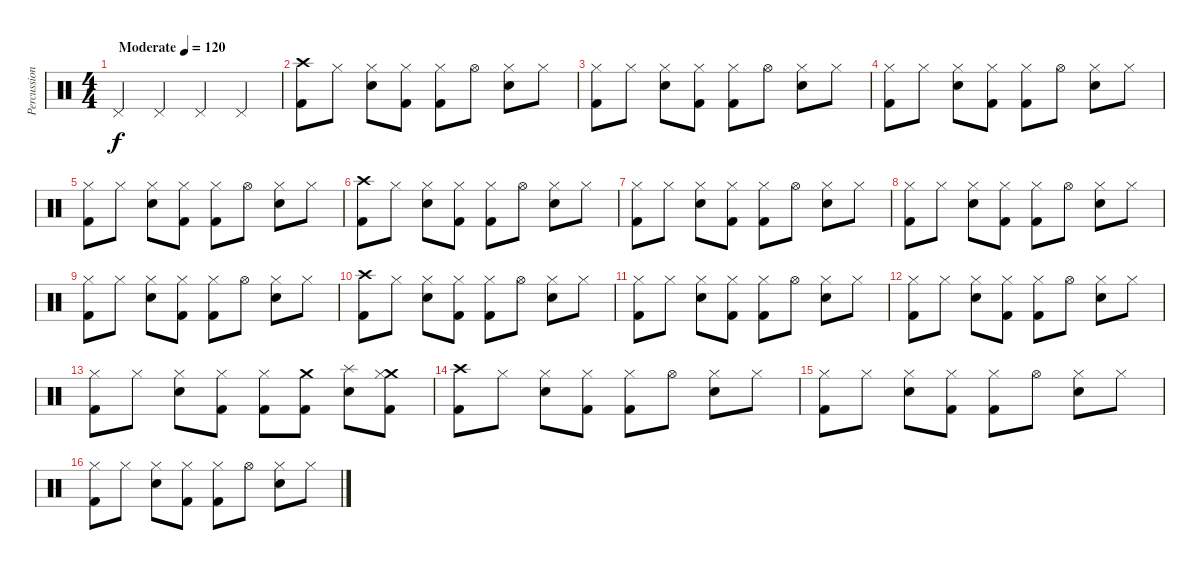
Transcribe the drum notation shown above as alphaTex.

\track ("Percussion" "Percussion") {instrument percussion}
\staff {score}
\articulation defaults
\ts (4 4)
\tempo (120 "Moderate")
\clef neutral
\ks c "Pedal Hi-Hat (hit)".4{dy f} "Pedal Hi-Hat (hit)".4 "Pedal Hi-Hat (hit)".4 "Pedal Hi-Hat (hit)".4
|
("Crash high (hit)" "Kick (hit) 2").8 "Hi-Hat (closed)".8 ("Hi-Hat (closed)" "Electric Snare (hit)").8 ("Hi-Hat (closed)" "Kick (hit) 2").8 ("Hi-Hat (closed)" "Kick (hit) 2").8 "Hi-Hat (open)".8 ("Hi-Hat (closed)" "Electric Snare (hit)").8 "Hi-Hat (closed)".8 |
("Hi-Hat (closed)" "Kick (hit) 2").8 "Hi-Hat (closed)".8 ("Hi-Hat (closed)" "Electric Snare (hit)").8 ("Hi-Hat (closed)" "Kick (hit) 2").8 ("Hi-Hat (closed)" "Kick (hit) 2").8 "Hi-Hat (open)".8 ("Hi-Hat (closed)" "Electric Snare (hit)").8 "Hi-Hat (closed)".8 |
("Hi-Hat (closed)" "Kick (hit) 2").8 "Hi-Hat (closed)".8 ("Hi-Hat (closed)" "Electric Snare (hit)").8 ("Hi-Hat (closed)" "Kick (hit) 2").8 ("Hi-Hat (closed)" "Kick (hit) 2").8 "Hi-Hat (open)".8 ("Hi-Hat (closed)" "Electric Snare (hit)").8 "Hi-Hat (closed)".8 |
("Hi-Hat (closed)" "Kick (hit) 2").8 "Hi-Hat (closed)".8 ("Hi-Hat (closed)" "Electric Snare (hit)").8 ("Hi-Hat (closed)" "Kick (hit) 2").8 ("Hi-Hat (closed)" "Kick (hit) 2").8 "Hi-Hat (open)".8 ("Hi-Hat (closed)" "Electric Snare (hit)").8 "Hi-Hat (closed)".8 |
("Crash high (hit)" "Kick (hit) 2").8 "Hi-Hat (closed)".8 ("Hi-Hat (closed)" "Electric Snare (hit)").8 ("Hi-Hat (closed)" "Kick (hit) 2").8 ("Hi-Hat (closed)" "Kick (hit) 2").8 "Hi-Hat (open)".8 ("Hi-Hat (closed)" "Electric Snare (hit)").8 "Hi-Hat (closed)".8 |
("Hi-Hat (closed)" "Kick (hit) 2").8 "Hi-Hat (closed)".8 ("Hi-Hat (closed)" "Electric Snare (hit)").8 ("Hi-Hat (closed)" "Kick (hit) 2").8 ("Hi-Hat (closed)" "Kick (hit) 2").8 "Hi-Hat (open)".8 ("Hi-Hat (closed)" "Electric Snare (hit)").8 "Hi-Hat (closed)".8 |
("Hi-Hat (closed)" "Kick (hit) 2").8 "Hi-Hat (closed)".8 ("Hi-Hat (closed)" "Electric Snare (hit)").8 ("Hi-Hat (closed)" "Kick (hit) 2").8 ("Hi-Hat (closed)" "Kick (hit) 2").8 "Hi-Hat (open)".8 ("Hi-Hat (closed)" "Electric Snare (hit)").8 "Hi-Hat (closed)".8 |
("Hi-Hat (closed)" "Kick (hit) 2").8 "Hi-Hat (closed)".8 ("Hi-Hat (closed)" "Electric Snare (hit)").8 ("Hi-Hat (closed)" "Kick (hit) 2").8 ("Hi-Hat (closed)" "Kick (hit) 2").8 "Hi-Hat (open)".8 ("Hi-Hat (closed)" "Electric Snare (hit)").8 "Hi-Hat (closed)".8 |
("Crash high (hit)" "Kick (hit) 2").8 "Hi-Hat (closed)".8 ("Hi-Hat (closed)" "Electric Snare (hit)").8 ("Hi-Hat (closed)" "Kick (hit) 2").8 ("Hi-Hat (closed)" "Kick (hit) 2").8 "Hi-Hat (open)".8 ("Hi-Hat (closed)" "Electric Snare (hit)").8 "Hi-Hat (closed)".8 |
("Hi-Hat (closed)" "Kick (hit) 2").8 "Hi-Hat (closed)".8 ("Hi-Hat (closed)" "Electric Snare (hit)").8 ("Hi-Hat (closed)" "Kick (hit) 2").8 ("Hi-Hat (closed)" "Kick (hit) 2").8 "Hi-Hat (open)".8 ("Hi-Hat (closed)" "Electric Snare (hit)").8 "Hi-Hat (closed)".8 |
("Hi-Hat (closed)" "Kick (hit) 2").8 "Hi-Hat (closed)".8 ("Hi-Hat (closed)" "Electric Snare (hit)").8 ("Hi-Hat (closed)" "Kick (hit) 2").8 ("Hi-Hat (closed)" "Kick (hit) 2").8 "Hi-Hat (open)".8 ("Hi-Hat (closed)" "Electric Snare (hit)").8 "Hi-Hat (closed)".8 |
("Hi-Hat (closed)" "Kick (hit) 2").8 "Hi-Hat (closed)".8 ("Hi-Hat (closed)" "Electric Snare (hit)").8 ("Hi-Hat (closed)" "Kick (hit) 2").8 ("Hi-Hat (closed)" "Kick (hit) 2").8 ("Crash medium (hit)" "Kick (hit) 2").8 ("Splash (hit)" "Electric Snare (hit)").8 ("Crash medium (hit)" "Hi-Hat (closed)" "Kick (hit) 2").8 |
("Crash high (hit)" "Kick (hit) 2").8 "Hi-Hat (closed)".8 ("Hi-Hat (closed)" "Electric Snare (hit)").8 ("Hi-Hat (closed)" "Kick (hit) 2").8 ("Hi-Hat (closed)" "Kick (hit) 2").8 "Hi-Hat (open)".8 ("Hi-Hat (closed)" "Electric Snare (hit)").8 "Hi-Hat (closed)".8 |
("Hi-Hat (closed)" "Kick (hit) 2").8 "Hi-Hat (closed)".8 ("Hi-Hat (closed)" "Electric Snare (hit)").8 ("Hi-Hat (closed)" "Kick (hit) 2").8 ("Hi-Hat (closed)" "Kick (hit) 2").8 "Hi-Hat (open)".8 ("Hi-Hat (closed)" "Electric Snare (hit)").8 "Hi-Hat (closed)".8 |
("Hi-Hat (closed)" "Kick (hit) 2").8 "Hi-Hat (closed)".8 ("Hi-Hat (closed)" "Electric Snare (hit)").8 ("Hi-Hat (closed)" "Kick (hit) 2").8 ("Hi-Hat (closed)" "Kick (hit) 2").8 "Hi-Hat (open)".8 ("Hi-Hat (closed)" "Electric Snare (hit)").8 "Hi-Hat (closed)".8
